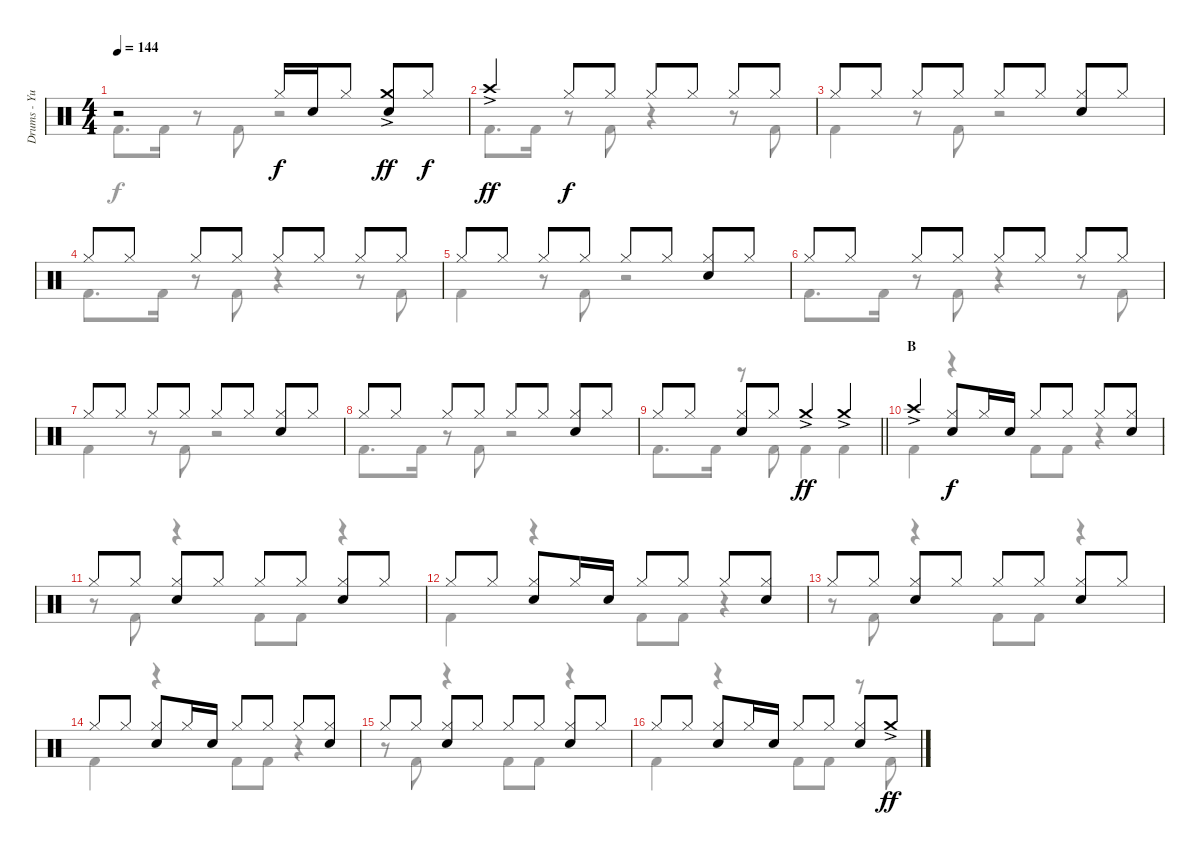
\track ("Drums - Yuuya" "Drums - Yu") {instrument percussion}
\staff {score}
\articulation defaults
\voice
\ts (4 4)
\tempo 144
\clef neutral
\ks c
r.2{dy f} "Hi-Hat (closed)".16 "Snare (hit) 2".16 "Hi-Hat (closed)".8 ("Crash medium (hit)"{ac} "Snare (hit) 2").8{dy ff} "Hi-Hat (closed)".8{dy f} |
"Crash high (hit)"{ac}.4{dy ff} "Hi-Hat (closed)".8{dy f} "Hi-Hat (closed)".8 "Hi-Hat (closed)".8 "Hi-Hat (closed)".8 "Hi-Hat (closed)".8 "Hi-Hat (closed)".8 |
"Hi-Hat (closed)".8 "Hi-Hat (closed)".8 "Hi-Hat (closed)".8 "Hi-Hat (closed)".8 "Hi-Hat (closed)".8 "Hi-Hat (closed)".8 ("Hi-Hat (closed)" "Snare (hit) 2").8 "Hi-Hat (closed)".8 |
"Hi-Hat (closed)".8 "Hi-Hat (closed)".8 "Hi-Hat (closed)".8 "Hi-Hat (closed)".8 "Hi-Hat (closed)".8 "Hi-Hat (closed)".8 "Hi-Hat (closed)".8 "Hi-Hat (closed)".8 |
"Hi-Hat (closed)".8 "Hi-Hat (closed)".8 "Hi-Hat (closed)".8 "Hi-Hat (closed)".8 "Hi-Hat (closed)".8 "Hi-Hat (closed)".8 ("Hi-Hat (closed)" "Snare (hit) 2").8 "Hi-Hat (closed)".8 |
"Hi-Hat (closed)".8 "Hi-Hat (closed)".8 "Hi-Hat (closed)".8 "Hi-Hat (closed)".8 "Hi-Hat (closed)".8 "Hi-Hat (closed)".8 "Hi-Hat (closed)".8 "Hi-Hat (closed)".8 |
"Hi-Hat (closed)".8 "Hi-Hat (closed)".8 "Hi-Hat (closed)".8 "Hi-Hat (closed)".8 "Hi-Hat (closed)".8 "Hi-Hat (closed)".8 ("Hi-Hat (closed)" "Snare (hit) 2").8 "Hi-Hat (closed)".8 |
"Hi-Hat (closed)".8 "Hi-Hat (closed)".8 "Hi-Hat (closed)".8 "Hi-Hat (closed)".8 "Hi-Hat (closed)".8 "Hi-Hat (closed)".8 ("Hi-Hat (closed)" "Snare (hit) 2").8 "Hi-Hat (closed)".8 |
\barLineRight lightlight "Hi-Hat (closed)".8 "Hi-Hat (closed)".8
("Hi-Hat (closed)" "Snare (hit) 2").8 "Hi-Hat (closed)".8 "Crash medium (hit)"{ac}.4{dy ff} "Crash medium (hit)"{ac}.4 |
\section ("" "B")
"Crash high (hit)"{ac}.4 ("Hi-Hat (closed)" "Snare (hit) 2").8{dy f} "Hi-Hat (closed)".16 "Snare (hit) 2".16 "Hi-Hat (closed)".8 "Hi-Hat (closed)".8 "Hi-Hat (closed)".8 ("Hi-Hat (closed)" "Snare (hit) 2").8 |
"Hi-Hat (closed)".8 "Hi-Hat (closed)".8 ("Hi-Hat (closed)" "Snare (hit) 2").8 "Hi-Hat (closed)".8 "Hi-Hat (closed)".8 "Hi-Hat (closed)".8 ("Hi-Hat (closed)" "Snare (hit) 2").8 "Hi-Hat (closed)".8 |
"Hi-Hat (closed)".8 "Hi-Hat (closed)".8 ("Hi-Hat (closed)" "Snare (hit) 2").8 "Hi-Hat (closed)".16 "Snare (hit) 2".16 "Hi-Hat (closed)".8 "Hi-Hat (closed)".8 "Hi-Hat (closed)".8 ("Hi-Hat (closed)" "Snare (hit) 2").8 |
"Hi-Hat (closed)".8 "Hi-Hat (closed)".8 ("Hi-Hat (closed)" "Snare (hit) 2").8 "Hi-Hat (closed)".8 "Hi-Hat (closed)".8 "Hi-Hat (closed)".8 ("Hi-Hat (closed)" "Snare (hit) 2").8 "Hi-Hat (closed)".8 |
"Hi-Hat (closed)".8 "Hi-Hat (closed)".8 ("Hi-Hat (closed)" "Snare (hit) 2").8 "Hi-Hat (closed)".16 "Snare (hit) 2".16 "Hi-Hat (closed)".8 "Hi-Hat (closed)".8 "Hi-Hat (closed)".8 ("Hi-Hat (closed)" "Snare (hit) 2").8 |
"Hi-Hat (closed)".8 "Hi-Hat (closed)".8 ("Hi-Hat (closed)" "Snare (hit) 2").8 "Hi-Hat (closed)".8 "Hi-Hat (closed)".8 "Hi-Hat (closed)".8 ("Hi-Hat (closed)" "Snare (hit) 2").8 "Hi-Hat (closed)".8 |
"Hi-Hat (closed)".8 "Hi-Hat (closed)".8 ("Hi-Hat (closed)" "Snare (hit) 2").8 "Hi-Hat (closed)".16 "Snare (hit) 2".16 "Hi-Hat (closed)".8 "Hi-Hat (closed)".8 ("Hi-Hat (closed)" "Snare (hit) 2").8 "Crash medium (hit)"{ac}.8{dy ff}
\voice
\clef neutral
\ottava regular
\simile none
\ks c "Kick (hit) 2".8{d dy f} "Kick (hit) 2".16
r.8 "Kick (hit) 2".8 r.2 |
"Kick (hit) 2".8{d} "Kick (hit) 2".16 r.8 "Kick (hit) 2".8 r.4 r.8 "Kick (hit) 2".8 |
"Kick (hit) 2".4 r.8 "Kick (hit) 2".8 r.2 |
"Kick (hit) 2".8{d} "Kick (hit) 2".16 r.8 "Kick (hit) 2".8 r.4 r.8 "Kick (hit) 2".8 |
"Kick (hit) 2".4 r.8 "Kick (hit) 2".8 r.2 |
"Kick (hit) 2".8{d} "Kick (hit) 2".16 r.8 "Kick (hit) 2".8 r.4 r.8 "Kick (hit) 2".8 |
"Kick (hit) 2".4 r.8 "Kick (hit) 2".8 r.2 |
"Kick (hit) 2".8{d} "Kick (hit) 2".16 r.8 "Kick (hit) 2".8 r.2 |
\barLineRight lightlight "Kick (hit) 2".8{d} "Kick (hit) 2".16
r.8 "Kick (hit) 2".8 "Kick (hit) 2".4 "Kick (hit) 2".4 |
"Kick (hit) 2".4 r.4 "Kick (hit) 2".8 "Kick (hit) 2".8 r.4 |
r.8 "Kick (hit) 2".8 r.4 "Kick (hit) 2".8 "Kick (hit) 2".8 r.4 |
"Kick (hit) 2".4 r.4 "Kick (hit) 2".8 "Kick (hit) 2".8 r.4 |
r.8 "Kick (hit) 2".8 r.4 "Kick (hit) 2".8 "Kick (hit) 2".8 r.4 |
"Kick (hit) 2".4 r.4 "Kick (hit) 2".8 "Kick (hit) 2".8 r.4 |
r.8 "Kick (hit) 2".8 r.4 "Kick (hit) 2".8 "Kick (hit) 2".8 r.4 |
"Kick (hit) 2".4 r.4 "Kick (hit) 2".8 "Kick (hit) 2".8 r.8 "Kick (hit) 2".8
